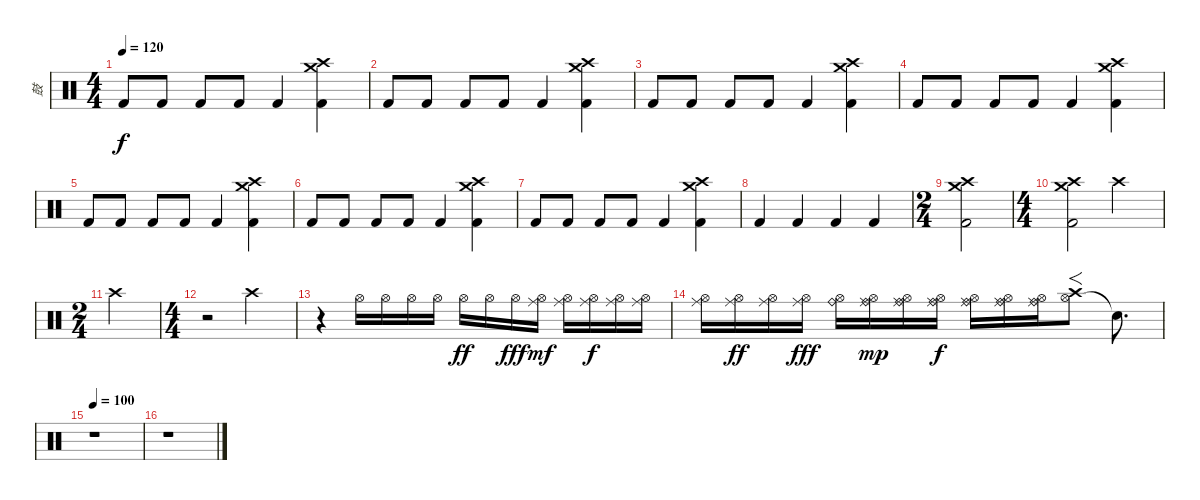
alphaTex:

\track ("鼓" "鼓") {instrument percussion}
\staff {score}
\articulation defaults
\ts (4 4)
\tempo 120
\clef neutral
\ks c "Kick (hit) 2".8{dy f} "Kick (hit) 2".8 "Kick (hit) 2".8 "Kick (hit) 2".8 "Kick (hit) 2".4
("Crash medium (hit)" "Crash high (hit)" "Kick (hit) 2").4 |
"Kick (hit) 2".8 "Kick (hit) 2".8 "Kick (hit) 2".8 "Kick (hit) 2".8 "Kick (hit) 2".4 ("Crash medium (hit)" "Crash high (hit)" "Kick (hit) 2").4 |
"Kick (hit) 2".8 "Kick (hit) 2".8 "Kick (hit) 2".8 "Kick (hit) 2".8 "Kick (hit) 2".4 ("Crash medium (hit)" "Crash high (hit)" "Kick (hit) 2").4 |
"Kick (hit) 2".8 "Kick (hit) 2".8 "Kick (hit) 2".8 "Kick (hit) 2".8 "Kick (hit) 2".4 ("Crash medium (hit)" "Crash high (hit)" "Kick (hit) 2").4 |
"Kick (hit) 2".8 "Kick (hit) 2".8 "Kick (hit) 2".8 "Kick (hit) 2".8 "Kick (hit) 2".4 ("Crash medium (hit)" "Crash high (hit)" "Kick (hit) 2").4 |
"Kick (hit) 2".8 "Kick (hit) 2".8 "Kick (hit) 2".8 "Kick (hit) 2".8 "Kick (hit) 2".4 ("Crash medium (hit)" "Crash high (hit)" "Kick (hit) 2").4 |
"Kick (hit) 2".8 "Kick (hit) 2".8 "Kick (hit) 2".8 "Kick (hit) 2".8 "Kick (hit) 2".4 ("Crash medium (hit)" "Crash high (hit)" "Kick (hit) 2").4 |
"Kick (hit) 2".4 "Kick (hit) 2".4 "Kick (hit) 2".4 "Kick (hit) 2".4 |
\ts (2 4)
("Crash medium (hit)" "Crash high (hit)" "Kick (hit) 2").2 |
\ts (4 4)
("Crash medium (hit)" "Crash high (hit)" "Kick (hit) 2").2 "Crash high (hit)".2 |
\ts (2 4)
"Crash high (hit)".2 |
\ts (4 4)
r.2 "Crash high (hit)".2 |
r.4 "Hi-Hat (open)".16 "Hi-Hat (open)".16 "Hi-Hat (open)".16 "Hi-Hat (open)".16 "Hi-Hat (open)".16{dy ff} "Hi-Hat (open)".16 "Hi-Hat (open)".16{dy fff} ("Hi-Hat (open)" "Ride (middle)").16{dy mf} ("Hi-Hat (open)" "Ride (middle)").16 ("Hi-Hat (open)" "Ride (middle)").16{dy f} ("Hi-Hat (open)" "Ride (middle)").16 ("Hi-Hat (open)" "Ride (middle)").16 |
("Hi-Hat (open)" "Ride (middle)").16 ("Hi-Hat (open)" "Ride (middle)").16{dy ff} ("Hi-Hat (open)" "Ride (middle)").16 ("Hi-Hat (open)" "Ride (middle)").16{dy fff} ("Hi-Hat (open)" "Ride (bell)").16 ("Hi-Hat (open)" "Ride (bell)" "Ride (middle)").16{dy mp} ("Hi-Hat (open)" "Ride (bell)" "Ride (middle)").16 ("Hi-Hat (open)" "Ride (bell)" "Ride (middle)").16{dy f} ("Hi-Hat (open)" "Ride (bell)" "Ride (middle)").16 ("Hi-Hat (open)" "Ride (bell)" "Ride (middle)").16 ("Hi-Hat (open)" "Ride (bell)" "Ride (middle)").16 ("Hi-Hat (open)" "Crash high (hit)").8{f} "Snare (hit)"{t}.8{d} |
\tempo 100
r.1 |
r.1
